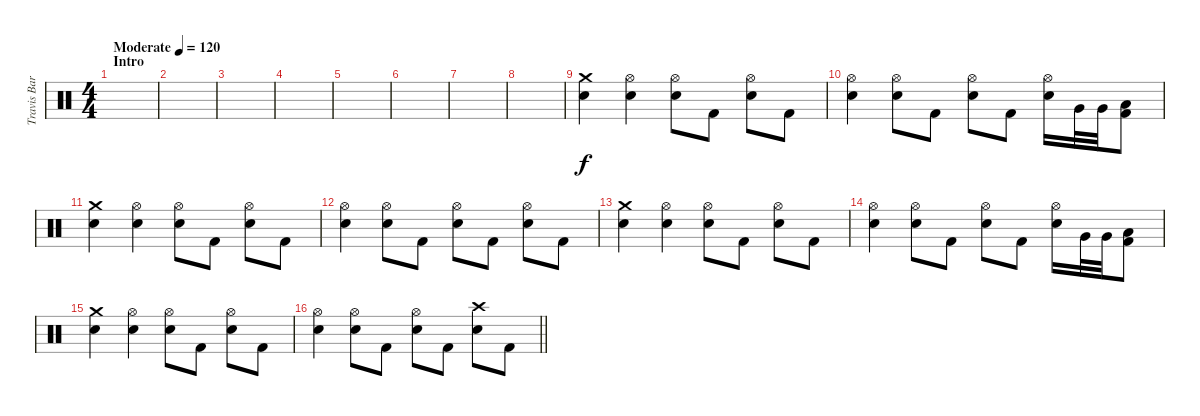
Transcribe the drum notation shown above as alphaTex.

\track ("Travis Barker - Drums" "Travis Bar") {instrument percussion}
\staff {score}
\articulation defaults
\ts (4 4)
\section ("" "Intro")
\tempo (120 "Moderate")
\clef neutral
\ks c
|
|
|
|
|
|
|
|
("Crash medium (hit)" "Electric Snare (hit)").4 ("Hi-Hat (open)" "Electric Snare (hit)").4 ("Hi-Hat (open)" "Electric Snare (hit)").8 "Kick (hit) 2".8 ("Hi-Hat (open)" "Electric Snare (hit)").8 "Kick (hit) 2".8 |
("Hi-Hat (open)" "Electric Snare (hit)").4 ("Hi-Hat (open)" "Electric Snare (hit)").8 "Kick (hit) 2".8 ("Hi-Hat (open)" "Electric Snare (hit)").8 "Kick (hit) 2".8 ("Hi-Hat (open)" "Electric Snare (hit)").16 "Very Low Tom (hit)".32 "Very Low Tom (hit)".32 ("Low Floor Tom (hit)" "Kick (hit) 2").8 |
("Crash medium (hit)" "Electric Snare (hit)").4 ("Hi-Hat (open)" "Electric Snare (hit)").4 ("Hi-Hat (open)" "Electric Snare (hit)").8 "Kick (hit) 2".8 ("Hi-Hat (open)" "Electric Snare (hit)").8 "Kick (hit) 2".8 |
("Hi-Hat (open)" "Electric Snare (hit)").4 ("Hi-Hat (open)" "Electric Snare (hit)").8 "Kick (hit) 2".8 ("Hi-Hat (open)" "Electric Snare (hit)").8 "Kick (hit) 2".8 ("Hi-Hat (open)" "Electric Snare (hit)").8 "Kick (hit) 2".8 |
("Crash medium (hit)" "Electric Snare (hit)").4 ("Hi-Hat (open)" "Electric Snare (hit)").4 ("Hi-Hat (open)" "Electric Snare (hit)").8 "Kick (hit) 2".8 ("Hi-Hat (open)" "Electric Snare (hit)").8 "Kick (hit) 2".8 |
("Hi-Hat (open)" "Electric Snare (hit)").4 ("Hi-Hat (open)" "Electric Snare (hit)").8 "Kick (hit) 2".8 ("Hi-Hat (open)" "Electric Snare (hit)").8 "Kick (hit) 2".8 ("Hi-Hat (open)" "Electric Snare (hit)").16 "Very Low Tom (hit)".32 "Very Low Tom (hit)".32 ("Low Floor Tom (hit)" "Kick (hit) 2").8 |
("Crash medium (hit)" "Electric Snare (hit)").4 ("Hi-Hat (open)" "Electric Snare (hit)").4 ("Hi-Hat (open)" "Electric Snare (hit)").8 "Kick (hit) 2".8 ("Hi-Hat (open)" "Electric Snare (hit)").8 "Kick (hit) 2".8 |
\barLineRight lightlight
("Hi-Hat (open)" "Electric Snare (hit)").4 ("Hi-Hat (open)" "Electric Snare (hit)").8 "Kick (hit) 2".8 ("Hi-Hat (open)" "Electric Snare (hit)").8 "Kick (hit) 2".8 ("Crash high (hit)" "Electric Snare (hit)").8 "Kick (hit) 2".8
